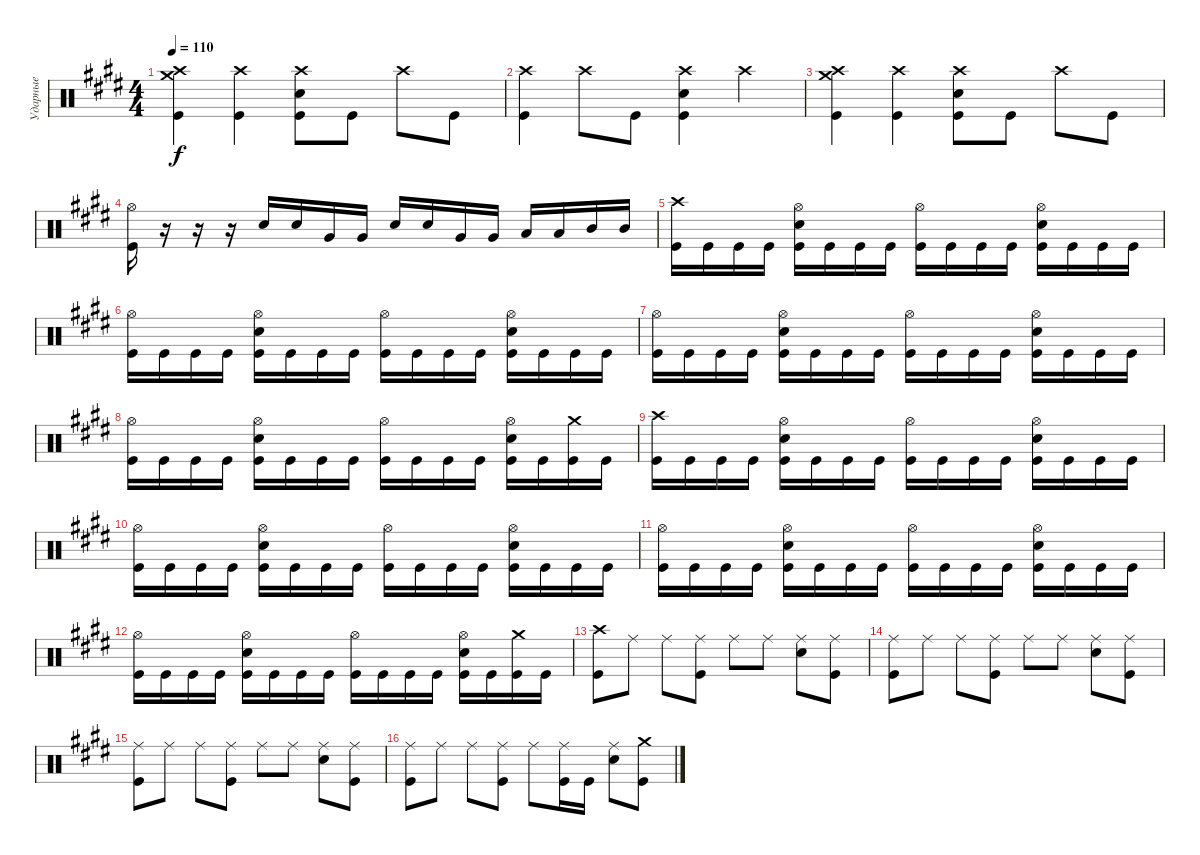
\track ("Ударные" "Ударные") {instrument percussion}
\staff {score}
\articulation defaults
\ts (4 4)
\tempo 110
\clef neutral
\ks e
("Crash high (hit)" "Crash medium (hit)" "Kick (hit)").4{dy f} ("Crash high (hit)" "Kick (hit)").4 ("Crash high (hit)" "Electric Snare (hit)" "Kick (hit)").8 "Kick (hit)".8 "Crash high (hit)".8 "Kick (hit)".8 |
("Crash high (hit)" "Kick (hit)").4 "Crash high (hit)".8 "Kick (hit)".8 ("Crash high (hit)" "Electric Snare (hit)" "Kick (hit)").4 "Crash high (hit)".4 |
("Crash high (hit)" "Crash medium (hit)" "Kick (hit)").4 ("Crash high (hit)" "Kick (hit)").4 ("Crash high (hit)" "Electric Snare (hit)" "Kick (hit)").8 "Kick (hit)".8 "Crash high (hit)".8 "Kick (hit)".8 |
("Hi-Hat (open)" "Kick (hit)").16 r.16 r.16 r.16 "Electric Snare (hit)".16 "Electric Snare (hit)".16 "Very Low Tom (hit)".16 "Very Low Tom (hit)".16 "Electric Snare (hit)".16 "Electric Snare (hit)".16 "Very Low Tom (hit)".16 "Very Low Tom (hit)".16 "Low Tom (hit)".16 "Low Tom (hit)".16 "Mid Tom (hit)".16 "Mid Tom (hit)".16 |
("Crash high (hit)" "Kick (hit)").16 "Kick (hit)".16 "Kick (hit)".16 "Kick (hit)".16 ("Hi-Hat (open)" "Electric Snare (hit)" "Kick (hit)").16 "Kick (hit)".16 "Kick (hit)".16 "Kick (hit)".16 ("Hi-Hat (open)" "Kick (hit)").16 "Kick (hit)".16 "Kick (hit)".16 "Kick (hit)".16 ("Hi-Hat (open)" "Electric Snare (hit)" "Kick (hit)").16 "Kick (hit)".16 "Kick (hit)".16 "Kick (hit)".16 |
("Hi-Hat (open)" "Kick (hit)").16 "Kick (hit)".16 "Kick (hit)".16 "Kick (hit)".16 ("Hi-Hat (open)" "Electric Snare (hit)" "Kick (hit)").16 "Kick (hit)".16 "Kick (hit)".16 "Kick (hit)".16 ("Hi-Hat (open)" "Kick (hit)").16 "Kick (hit)".16 "Kick (hit)".16 "Kick (hit)".16 ("Hi-Hat (open)" "Electric Snare (hit)" "Kick (hit)").16 "Kick (hit)".16 "Kick (hit)".16 "Kick (hit)".16 |
("Hi-Hat (open)" "Kick (hit)").16 "Kick (hit)".16 "Kick (hit)".16 "Kick (hit)".16 ("Hi-Hat (open)" "Electric Snare (hit)" "Kick (hit)").16 "Kick (hit)".16 "Kick (hit)".16 "Kick (hit)".16 ("Hi-Hat (open)" "Kick (hit)").16 "Kick (hit)".16 "Kick (hit)".16 "Kick (hit)".16 ("Hi-Hat (open)" "Electric Snare (hit)" "Kick (hit)").16 "Kick (hit)".16 "Kick (hit)".16 "Kick (hit)".16 |
("Hi-Hat (open)" "Kick (hit)").16 "Kick (hit)".16 "Kick (hit)".16 "Kick (hit)".16 ("Hi-Hat (open)" "Electric Snare (hit)" "Kick (hit)").16 "Kick (hit)".16 "Kick (hit)".16 "Kick (hit)".16 ("Hi-Hat (open)" "Kick (hit)").16 "Kick (hit)".16 "Kick (hit)".16 "Kick (hit)".16 ("Hi-Hat (open)" "Electric Snare (hit)" "Kick (hit)").16 "Kick (hit)".16 ("Crash medium (hit)" "Kick (hit)").16 "Kick (hit)".16 |
("Crash high (hit)" "Kick (hit)").16 "Kick (hit)".16 "Kick (hit)".16 "Kick (hit)".16 ("Hi-Hat (open)" "Electric Snare (hit)" "Kick (hit)").16 "Kick (hit)".16 "Kick (hit)".16 "Kick (hit)".16 ("Hi-Hat (open)" "Kick (hit)").16 "Kick (hit)".16 "Kick (hit)".16 "Kick (hit)".16 ("Hi-Hat (open)" "Electric Snare (hit)" "Kick (hit)").16 "Kick (hit)".16 "Kick (hit)".16 "Kick (hit)".16 |
("Hi-Hat (open)" "Kick (hit)").16 "Kick (hit)".16 "Kick (hit)".16 "Kick (hit)".16 ("Hi-Hat (open)" "Electric Snare (hit)" "Kick (hit)").16 "Kick (hit)".16 "Kick (hit)".16 "Kick (hit)".16 ("Hi-Hat (open)" "Kick (hit)").16 "Kick (hit)".16 "Kick (hit)".16 "Kick (hit)".16 ("Hi-Hat (open)" "Electric Snare (hit)" "Kick (hit)").16 "Kick (hit)".16 "Kick (hit)".16 "Kick (hit)".16 |
("Hi-Hat (open)" "Kick (hit)").16 "Kick (hit)".16 "Kick (hit)".16 "Kick (hit)".16 ("Hi-Hat (open)" "Electric Snare (hit)" "Kick (hit)").16 "Kick (hit)".16 "Kick (hit)".16 "Kick (hit)".16 ("Hi-Hat (open)" "Kick (hit)").16 "Kick (hit)".16 "Kick (hit)".16 "Kick (hit)".16 ("Hi-Hat (open)" "Electric Snare (hit)" "Kick (hit)").16 "Kick (hit)".16 "Kick (hit)".16 "Kick (hit)".16 |
("Hi-Hat (open)" "Kick (hit)").16 "Kick (hit)".16 "Kick (hit)".16 "Kick (hit)".16 ("Hi-Hat (open)" "Electric Snare (hit)" "Kick (hit)").16 "Kick (hit)".16 "Kick (hit)".16 "Kick (hit)".16 ("Hi-Hat (open)" "Kick (hit)").16 "Kick (hit)".16 "Kick (hit)".16 "Kick (hit)".16 ("Hi-Hat (open)" "Electric Snare (hit)" "Kick (hit)").16 "Kick (hit)".16 ("Crash medium (hit)" "Kick (hit)").16 "Kick (hit)".16 |
("Crash high (hit)" "Kick (hit)").8 "Ride (middle)".8 "Ride (middle)".8 ("Ride (middle)" "Kick (hit)").8 "Ride (middle)".8 "Ride (middle)".8 ("Ride (middle)" "Electric Snare (hit)").8 ("Ride (middle)" "Kick (hit)").8 |
("Ride (middle)" "Kick (hit)").8 "Ride (middle)".8 "Ride (middle)".8 ("Ride (middle)" "Kick (hit)").8 "Ride (middle)".8 "Ride (middle)".8 ("Ride (middle)" "Electric Snare (hit)").8 ("Ride (middle)" "Kick (hit)").8 |
("Ride (middle)" "Kick (hit)").8 "Ride (middle)".8 "Ride (middle)".8 ("Ride (middle)" "Kick (hit)").8 "Ride (middle)".8 "Ride (middle)".8 ("Ride (middle)" "Electric Snare (hit)").8 ("Ride (middle)" "Kick (hit)").8 |
("Ride (middle)" "Kick (hit)").8 "Ride (middle)".8 "Ride (middle)".8 ("Ride (middle)" "Kick (hit)").8 "Ride (middle)".8 ("Ride (middle)" "Kick (hit)").16 "Kick (hit)".16 ("Ride (middle)" "Electric Snare (hit)").8 ("Crash medium (hit)" "Kick (hit)").8
